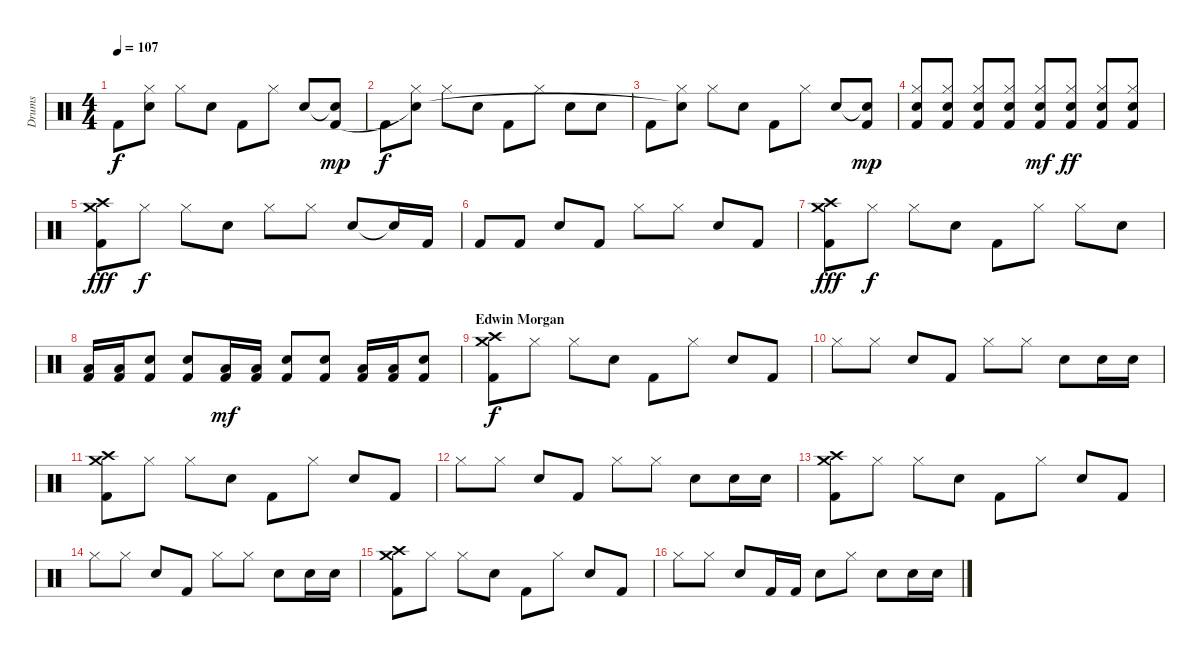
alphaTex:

\track ("Drums" "Drums") {instrument percussion}
\staff {score}
\articulation defaults
\ts (4 4)
\tempo 107
\clef neutral
\ks c "Kick (hit) 2".8{dy f}
("Hi-Hat (closed)" "Snare (hit)"{t}).8 "Hi-Hat (closed)".8 "Electric Snare (hit)".8 "Kick (hit) 2".8 "Hi-Hat (closed)".8 "Electric Snare (hit)".8 ("Snare (hit)"{t} "Kick (hit) 2").8{dy mp} |
"Kick (hit) 2".8{dy f} ("Hi-Hat (closed)" "Snare (hit)"{t}).8 "Hi-Hat (closed)".8 "Electric Snare (hit)".8 "Kick (hit) 2".8 "Hi-Hat (closed)".8 "Electric Snare (hit)".8 "Electric Snare (hit)".8 |
"Kick (hit) 2".8 ("Hi-Hat (closed)" "Snare (hit)"{t}).8 "Hi-Hat (closed)".8 "Electric Snare (hit)".8 "Kick (hit) 2".8 "Hi-Hat (closed)".8 "Electric Snare (hit)".8 ("Snare (hit)"{t} "Kick (hit) 2").8{dy mp} |
("Hi-Hat (closed)" "Electric Snare (hit)" "Kick (hit) 2").8 ("Hi-Hat (closed)" "Electric Snare (hit)" "Kick (hit) 2").8 ("Hi-Hat (closed)" "Electric Snare (hit)" "Kick (hit) 2").8 ("Hi-Hat (closed)" "Electric Snare (hit)" "Kick (hit) 2").8 ("Hi-Hat (closed)" "Electric Snare (hit)" "Kick (hit) 2").8{dy mf} ("Hi-Hat (closed)" "Electric Snare (hit)" "Kick (hit) 2").8{dy ff} ("Hi-Hat (closed)" "Electric Snare (hit)" "Kick (hit) 2").8 ("Hi-Hat (closed)" "Electric Snare (hit)" "Kick (hit) 2").8 |
("Crash high (hit)" "Crash medium (hit)" "Kick (hit) 2").8{dy fff volume 16} "Hi-Hat (closed)".8{dy f} "Hi-Hat (closed)".8 "Snare (hit) 2".8 "Hi-Hat (closed)".8 "Hi-Hat (closed)".8 "Snare (hit) 2".8 "Snare (hit)"{t}.16 "Kick (hit) 2".16 |
"Kick (hit) 2".8 "Kick (hit) 2".8 "Snare (hit) 2".8 "Kick (hit) 2".8 "Hi-Hat (closed)".8 "Hi-Hat (closed)".8 "Snare (hit) 2".8 "Kick (hit) 2".8 |
("Crash high (hit)" "Crash medium (hit)" "Kick (hit) 2").8{dy fff} "Hi-Hat (closed)".8{dy f} "Hi-Hat (closed)".8 "Snare (hit) 2".8 "Kick (hit) 2".8 "Hi-Hat (closed)".8 "Hi-Hat (closed)".8 "Snare (hit) 2".8 |
("Low Tom (hit)" "Kick (hit) 2").16 ("Low Tom (hit)" "Kick (hit) 2").16 ("Snare (hit) 2" "Kick (hit) 2").8 ("Snare (hit) 2" "Kick (hit) 2").8 ("Low Tom (hit)" "Kick (hit) 2").16{dy mf} ("Low Tom (hit)" "Kick (hit) 2").16 ("Snare (hit) 2" "Kick (hit) 2").8 ("Snare (hit) 2" "Kick (hit) 2").8 ("Low Tom (hit)" "Kick (hit) 2").16 ("Low Tom (hit)" "Kick (hit) 2").16 ("Snare (hit) 2" "Kick (hit) 2").8 |
\section ("" "Edwin Morgan")
("Crash medium (hit)" "Crash high (hit)" "Kick (hit) 2").8{dy f} "Hi-Hat (closed)".8 "Hi-Hat (closed)".8 "Snare (hit) 2".8 "Kick (hit) 2".8 "Hi-Hat (closed)".8 "Snare (hit) 2".8 "Kick (hit) 2".8 |
"Hi-Hat (closed)".8 "Hi-Hat (closed)".8 "Snare (hit) 2".8 "Kick (hit) 2".8 "Hi-Hat (closed)".8 "Hi-Hat (closed)".8 "Snare (hit) 2".8 "Snare (hit) 2".16 "Snare (hit) 2".16 |
("Crash medium (hit)" "Crash high (hit)" "Kick (hit) 2").8 "Hi-Hat (closed)".8 "Hi-Hat (closed)".8 "Snare (hit) 2".8 "Kick (hit) 2".8 "Hi-Hat (closed)".8 "Snare (hit) 2".8 "Kick (hit) 2".8 |
"Hi-Hat (closed)".8 "Hi-Hat (closed)".8 "Snare (hit) 2".8 "Kick (hit) 2".8 "Hi-Hat (closed)".8 "Hi-Hat (closed)".8 "Snare (hit) 2".8 "Snare (hit) 2".16 "Snare (hit) 2".16 |
("Crash medium (hit)" "Crash high (hit)" "Kick (hit) 2").8 "Hi-Hat (closed)".8 "Hi-Hat (closed)".8 "Snare (hit) 2".8 "Kick (hit) 2".8 "Hi-Hat (closed)".8 "Snare (hit) 2".8 "Kick (hit) 2".8 |
"Hi-Hat (closed)".8 "Hi-Hat (closed)".8 "Snare (hit) 2".8 "Kick (hit) 2".8 "Hi-Hat (closed)".8 "Hi-Hat (closed)".8 "Snare (hit) 2".8 "Snare (hit) 2".16 "Snare (hit) 2".16 |
("Crash medium (hit)" "Crash high (hit)" "Kick (hit) 2").8 "Hi-Hat (closed)".8 "Hi-Hat (closed)".8 "Snare (hit) 2".8 "Kick (hit) 2".8 "Hi-Hat (closed)".8 "Snare (hit) 2".8 "Kick (hit) 2".8 |
"Hi-Hat (closed)".8 "Hi-Hat (closed)".8 "Snare (hit) 2".8 "Kick (hit) 2".16 "Kick (hit) 2".16 "Snare (hit) 2".8 "Hi-Hat (closed)".8 "Snare (hit) 2".8 "Snare (hit) 2".16 "Snare (hit) 2".16
